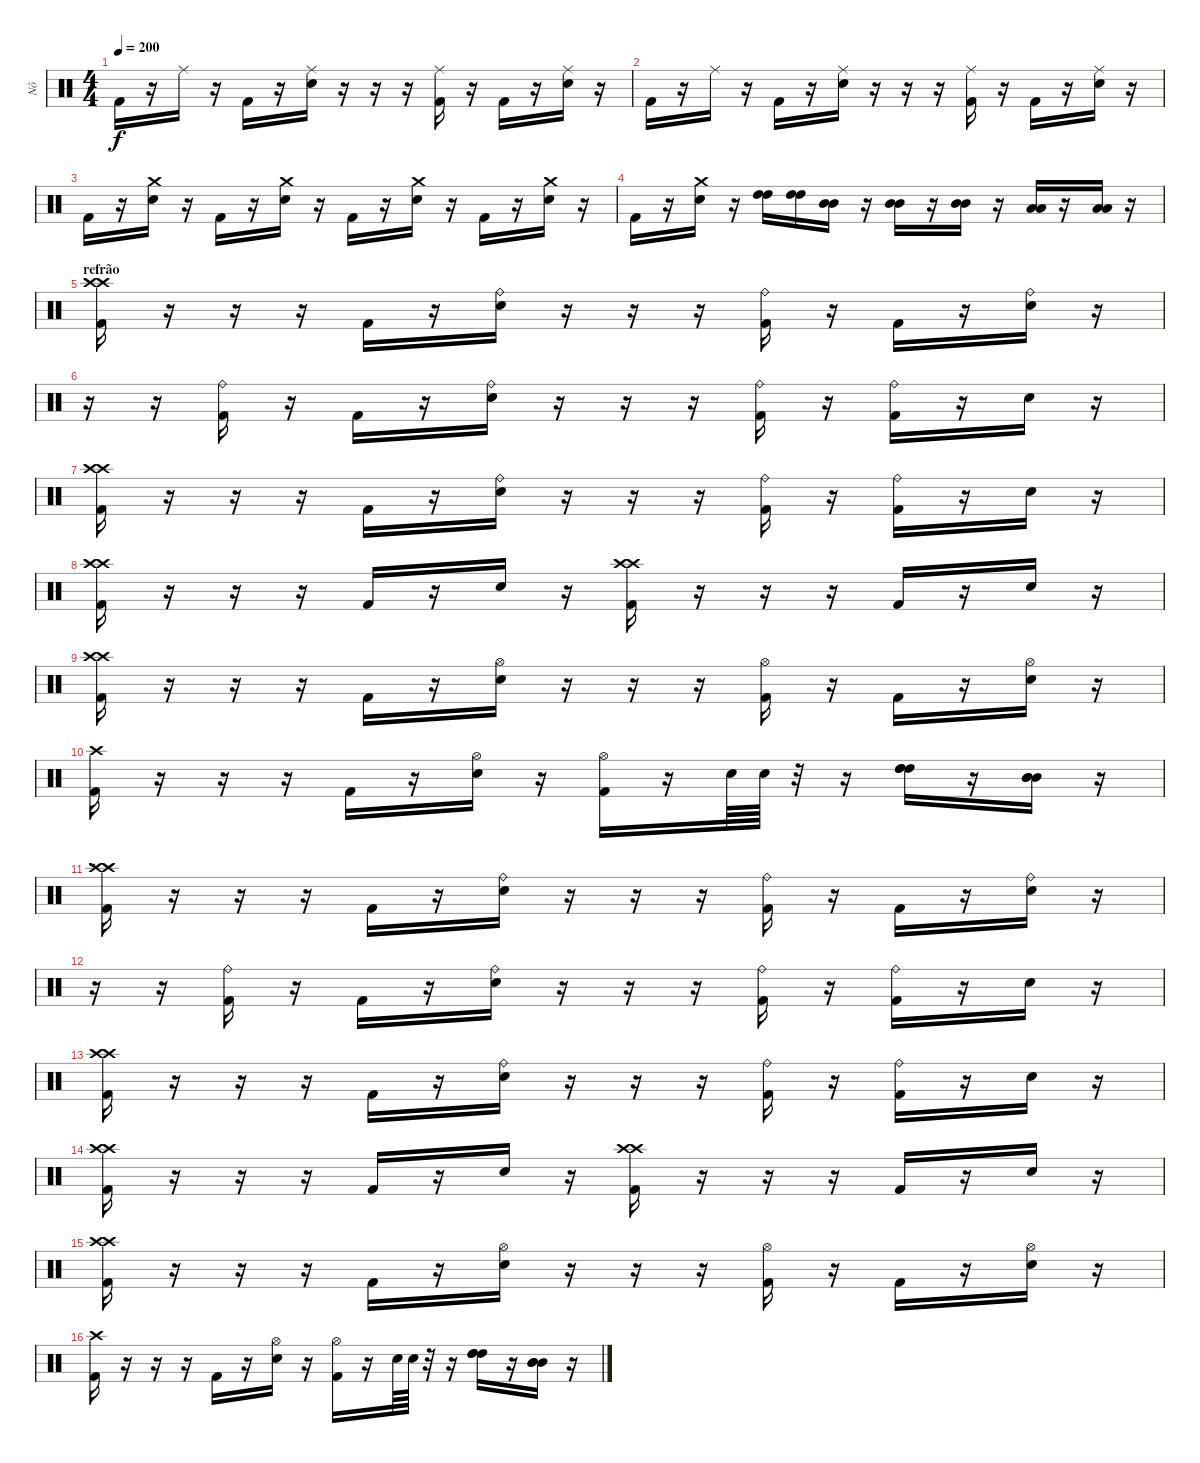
\track ("Nô" "Nô") {instrument percussion}
\staff {score}
\articulation defaults
\ts (4 4)
\tempo 200
\clef neutral
\ks c "Kick (hit) 2".16{dy f}
r.16 "Ride (middle)".16 r.16 "Kick (hit) 2".16 r.16 ("Ride (middle)" "Electric Snare (hit)").16 r.16 r.16 r.16 ("Ride (middle)" "Kick (hit) 2").16 r.16 "Kick (hit) 2".16 r.16 ("Ride (middle)" "Electric Snare (hit)").16 r.16 |
"Kick (hit) 2".16 r.16 "Ride (middle)".16 r.16 "Kick (hit) 2".16 r.16 ("Ride (middle)" "Electric Snare (hit)").16 r.16 r.16 r.16 ("Ride (middle)" "Kick (hit) 2").16 r.16 "Kick (hit) 2".16 r.16 ("Ride (middle)" "Electric Snare (hit)").16 r.16 |
"Kick (hit) 2".16 r.16 ("Crash medium (hit)" "Electric Snare (hit)").16 r.16 "Kick (hit) 2".16 r.16 ("Crash medium (hit)" "Electric Snare (hit)").16 r.16 "Kick (hit) 2".16 r.16 ("Crash medium (hit)" "Electric Snare (hit)").16 r.16 "Kick (hit) 2".16 r.16 ("Crash medium (hit)" "Electric Snare (hit)").16 r.16 |
"Kick (hit) 2".16 r.16 ("Crash medium (hit)" "Electric Snare (hit)").16 r.16 ("High Tom (hit)" "High Tom (hit)").16 ("High Tom (hit)" "High Tom (hit)").16 ("Mid Tom (hit)" "Mid Tom (hit)").16 r.16 ("Mid Tom (hit)" "Mid Tom (hit)").16 r.16 ("Mid Tom (hit)" "Mid Tom (hit)").16 r.16 ("Low Tom (hit)" "Low Tom (hit)").16 r.16 ("Low Tom (hit)" "Low Tom (hit)").16 r.16 |
\section ("" "refrão")
("Crash high (hit)" "Crash high (hit)" "Kick (hit) 2").16 r.16 r.16 r.16 "Kick (hit) 2".16 r.16 ("Ride (bell)" "Electric Snare (hit)").16 r.16 r.16 r.16 ("Ride (bell)" "Kick (hit) 2").16 r.16 "Kick (hit) 2".16 r.16 ("Ride (bell)" "Electric Snare (hit)").16 r.16 |
r.16 r.16 ("Ride (bell)" "Kick (hit) 2").16 r.16 "Kick (hit) 2".16 r.16 ("Ride (bell)" "Electric Snare (hit)").16 r.16 r.16 r.16 ("Ride (bell)" "Kick (hit) 2").16 r.16 ("Ride (bell)" "Kick (hit) 2").16 r.16 "Electric Snare (hit)".16 r.16 |
("Crash high (hit)" "Crash high (hit)" "Kick (hit) 2").16 r.16 r.16 r.16 "Kick (hit) 2".16 r.16 ("Ride (bell)" "Electric Snare (hit)").16 r.16 r.16 r.16 ("Ride (bell)" "Kick (hit) 2").16 r.16 ("Ride (bell)" "Kick (hit) 2").16 r.16 "Electric Snare (hit)".16 r.16 |
("Crash high (hit)" "Crash high (hit)" "Kick (hit) 2").16 r.16 r.16 r.16 "Kick (hit) 2".16 r.16 "Electric Snare (hit)".16 r.16 ("Crash high (hit)" "Crash high (hit)" "Kick (hit) 2").16 r.16 r.16 r.16 "Kick (hit) 2".16 r.16 "Electric Snare (hit)".16 r.16 |
("Crash high (hit)" "Crash high (hit)" "Kick (hit) 2").16 r.16 r.16 r.16 "Kick (hit) 2".16 r.16 ("Hi-Hat (open)" "Electric Snare (hit)").16 r.16 r.16 r.16 ("Hi-Hat (open)" "Kick (hit) 2").16 r.16 "Kick (hit) 2".16 r.16 ("Hi-Hat (open)" "Electric Snare (hit)").16 r.16 |
("Crash high (hit)" "Kick (hit) 2").16 r.16 r.16 r.16 "Kick (hit) 2".16 r.16 ("Hi-Hat (open)" "Electric Snare (hit)").16 r.16 ("Hi-Hat (open)" "Kick (hit) 2").16 r.16 "Electric Snare (hit)".64 "Electric Snare (hit)".64 r.32 r.16 ("High Tom (hit)" "High Tom (hit)" "High Tom (hit)").16 r.16 ("Mid Tom (hit)" "Mid Tom (hit)" "Mid Tom (hit)").16 r.16 |
\section ("" "..")
("Crash high (hit)" "Crash high (hit)" "Kick (hit) 2").16 r.16 r.16 r.16 "Kick (hit) 2".16 r.16 ("Ride (bell)" "Electric Snare (hit)").16 r.16 r.16 r.16 ("Ride (bell)" "Kick (hit) 2").16 r.16 "Kick (hit) 2".16 r.16 ("Ride (bell)" "Electric Snare (hit)").16 r.16 |
r.16 r.16 ("Ride (bell)" "Kick (hit) 2").16 r.16 "Kick (hit) 2".16 r.16 ("Ride (bell)" "Electric Snare (hit)").16 r.16 r.16 r.16 ("Ride (bell)" "Kick (hit) 2").16 r.16 ("Ride (bell)" "Kick (hit) 2").16 r.16 "Electric Snare (hit)".16 r.16 |
("Crash high (hit)" "Crash high (hit)" "Kick (hit) 2").16 r.16 r.16 r.16 "Kick (hit) 2".16 r.16 ("Ride (bell)" "Electric Snare (hit)").16 r.16 r.16 r.16 ("Ride (bell)" "Kick (hit) 2").16 r.16 ("Ride (bell)" "Kick (hit) 2").16 r.16 "Electric Snare (hit)".16 r.16 |
("Crash high (hit)" "Crash high (hit)" "Kick (hit) 2").16 r.16 r.16 r.16 "Kick (hit) 2".16 r.16 "Electric Snare (hit)".16 r.16 ("Crash high (hit)" "Crash high (hit)" "Kick (hit) 2").16 r.16 r.16 r.16 "Kick (hit) 2".16 r.16 "Electric Snare (hit)".16 r.16 |
("Crash high (hit)" "Crash high (hit)" "Kick (hit) 2").16 r.16 r.16 r.16 "Kick (hit) 2".16 r.16 ("Hi-Hat (open)" "Electric Snare (hit)").16 r.16 r.16 r.16 ("Hi-Hat (open)" "Kick (hit) 2").16 r.16 "Kick (hit) 2".16 r.16 ("Hi-Hat (open)" "Electric Snare (hit)").16 r.16 |
("Crash high (hit)" "Kick (hit) 2").16 r.16 r.16 r.16 "Kick (hit) 2".16 r.16 ("Hi-Hat (open)" "Electric Snare (hit)").16 r.16 ("Hi-Hat (open)" "Kick (hit) 2").16 r.16 "Electric Snare (hit)".64 "Electric Snare (hit)".64 r.32 r.16 ("High Tom (hit)" "High Tom (hit)" "High Tom (hit)").16 r.16 ("Mid Tom (hit)" "Mid Tom (hit)" "Mid Tom (hit)").16 r.16
